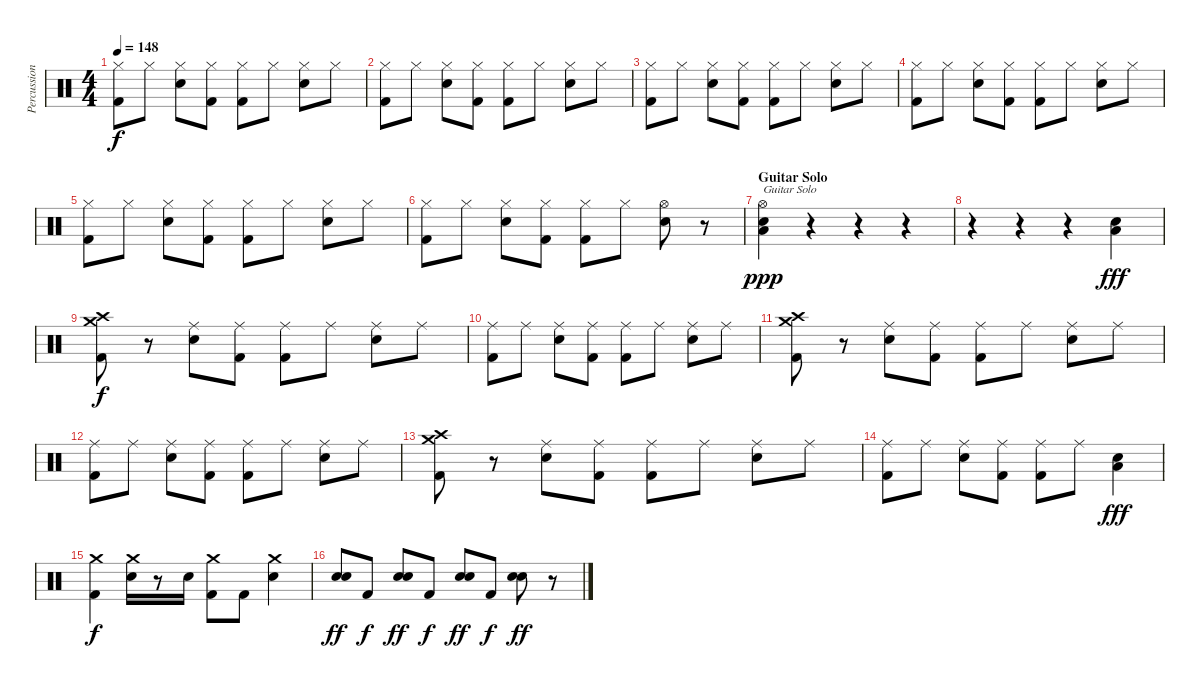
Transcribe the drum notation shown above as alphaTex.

\track ("Percussion" "Percussion") {instrument percussion}
\staff {score}
\articulation defaults
\ts (4 4)
\tempo 148
\clef neutral
\ks c
("Hi-Hat (closed)" "Kick (hit) 2").8{dy f} "Hi-Hat (closed)".8 ("Hi-Hat (closed)" "Electric Snare (hit)").8 ("Hi-Hat (closed)" "Kick (hit) 2").8 ("Hi-Hat (closed)" "Kick (hit) 2").8 "Hi-Hat (closed)".8 ("Hi-Hat (closed)" "Electric Snare (hit)").8 "Hi-Hat (closed)".8 |
("Hi-Hat (closed)" "Kick (hit) 2").8 "Hi-Hat (closed)".8 ("Hi-Hat (closed)" "Electric Snare (hit)").8 ("Hi-Hat (closed)" "Kick (hit) 2").8 ("Hi-Hat (closed)" "Kick (hit) 2").8 "Hi-Hat (closed)".8 ("Hi-Hat (closed)" "Electric Snare (hit)").8 "Hi-Hat (closed)".8 |
("Hi-Hat (closed)" "Kick (hit) 2").8 "Hi-Hat (closed)".8 ("Hi-Hat (closed)" "Electric Snare (hit)").8 ("Hi-Hat (closed)" "Kick (hit) 2").8 ("Hi-Hat (closed)" "Kick (hit) 2").8 "Hi-Hat (closed)".8 ("Hi-Hat (closed)" "Electric Snare (hit)").8 "Hi-Hat (closed)".8 |
("Hi-Hat (closed)" "Kick (hit) 2").8 "Hi-Hat (closed)".8 ("Hi-Hat (closed)" "Electric Snare (hit)").8 ("Hi-Hat (closed)" "Kick (hit) 2").8 ("Hi-Hat (closed)" "Kick (hit) 2").8 "Hi-Hat (closed)".8 ("Hi-Hat (closed)" "Electric Snare (hit)").8 "Hi-Hat (closed)".8 |
("Hi-Hat (closed)" "Kick (hit) 2").8 "Hi-Hat (closed)".8 ("Hi-Hat (closed)" "Electric Snare (hit)").8 ("Hi-Hat (closed)" "Kick (hit) 2").8 ("Hi-Hat (closed)" "Kick (hit) 2").8 "Hi-Hat (closed)".8 ("Hi-Hat (closed)" "Electric Snare (hit)").8 "Hi-Hat (closed)".8 |
("Hi-Hat (closed)" "Kick (hit) 2").8 "Hi-Hat (closed)".8 ("Hi-Hat (closed)" "Electric Snare (hit)").8 ("Hi-Hat (closed)" "Kick (hit) 2").8 ("Hi-Hat (closed)" "Kick (hit) 2").8 "Hi-Hat (closed)".8 ("Hi-Hat (open)" "Electric Snare (hit)").8 r.8 |
\section ("" "Guitar Solo")
("Hi-Hat (open)" "Electric Snare (hit)" "Low Floor Tom (hit)").4{txt "Guitar Solo" dy ppp} r.4 r.4 r.4 |
r.4 r.4 r.4 ("Electric Snare (hit)" "Low Floor Tom (hit)").4{dy fff} |
("Crash medium (hit)" "Crash high (hit)" "Kick (hit) 2").8{dy f} r.8 ("Ride (middle)" "Electric Snare (hit)").8 ("Ride (middle)" "Kick (hit) 2").8 ("Ride (middle)" "Kick (hit) 2").8 "Ride (middle)".8 ("Ride (middle)" "Electric Snare (hit)").8 "Ride (middle)".8 |
("Ride (middle)" "Kick (hit) 2").8 "Ride (middle)".8 ("Ride (middle)" "Electric Snare (hit)").8 ("Ride (middle)" "Kick (hit) 2").8 ("Ride (middle)" "Kick (hit) 2").8 "Ride (middle)".8 ("Ride (middle)" "Electric Snare (hit)").8 "Ride (middle)".8 |
("Crash medium (hit)" "Crash high (hit)" "Kick (hit) 2").8 r.8 ("Ride (middle)" "Electric Snare (hit)").8 ("Ride (middle)" "Kick (hit) 2").8 ("Ride (middle)" "Kick (hit) 2").8 "Ride (middle)".8 ("Ride (middle)" "Electric Snare (hit)").8 "Ride (middle)".8 |
("Ride (middle)" "Kick (hit) 2").8 "Ride (middle)".8 ("Ride (middle)" "Electric Snare (hit)").8 ("Ride (middle)" "Kick (hit) 2").8 ("Ride (middle)" "Kick (hit) 2").8 "Ride (middle)".8 ("Ride (middle)" "Electric Snare (hit)").8 "Ride (middle)".8 |
("Crash medium (hit)" "Crash high (hit)" "Kick (hit) 2").8 r.8 ("Ride (middle)" "Electric Snare (hit)").8 ("Ride (middle)" "Kick (hit) 2").8 ("Ride (middle)" "Kick (hit) 2").8 "Ride (middle)".8 ("Ride (middle)" "Electric Snare (hit)").8 "Ride (middle)".8 |
("Ride (middle)" "Kick (hit) 2").8 "Ride (middle)".8 ("Ride (middle)" "Electric Snare (hit)").8 ("Ride (middle)" "Kick (hit) 2").8 ("Ride (middle)" "Kick (hit) 2").8 "Ride (middle)".8 ("Electric Snare (hit)" "Low Floor Tom (hit)").4{dy fff} |
("Crash medium (hit)" "Kick (hit) 2").4{dy f} ("Crash medium (hit)" "Electric Snare (hit)").16 r.8 "Electric Snare (hit)".16 ("Crash medium (hit)" "Kick (hit) 2").8 "Kick (hit) 2".8 ("Crash medium (hit)" "Electric Snare (hit)").4 |
("Electric Snare (hit)" "Electric Snare (hit)").8{dy ff} "Kick (hit) 2".8{dy f} ("Electric Snare (hit)" "Electric Snare (hit)").8{dy ff} "Kick (hit) 2".8{dy f} ("Electric Snare (hit)" "Electric Snare (hit)").8{dy ff} "Kick (hit) 2".8{dy f} ("Electric Snare (hit)" "Electric Snare (hit)").8{dy ff} r.8
